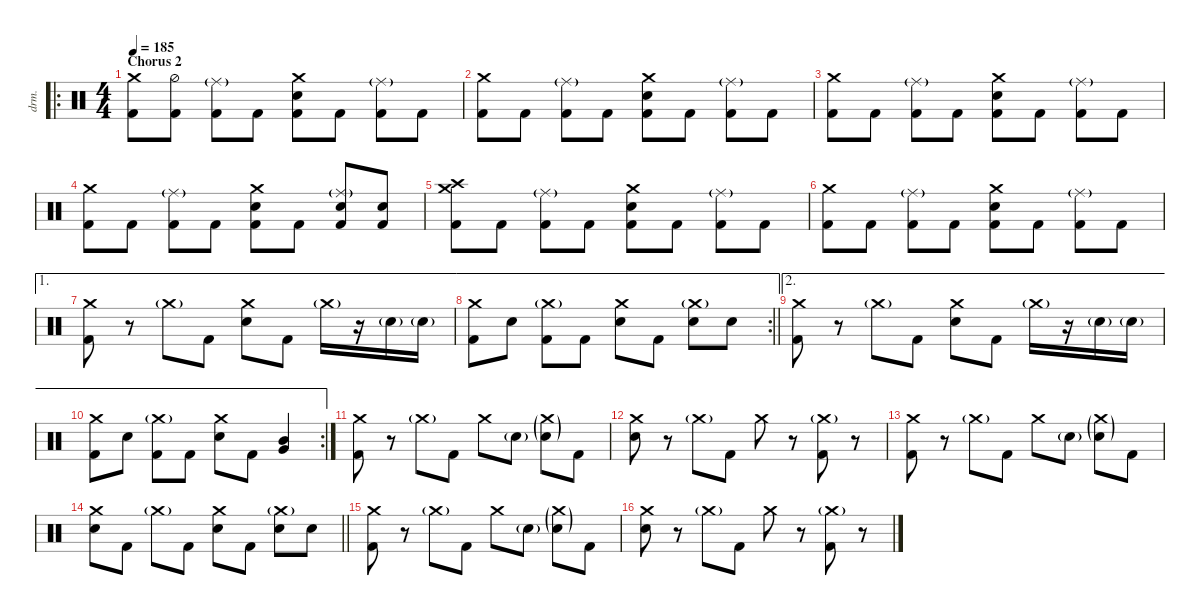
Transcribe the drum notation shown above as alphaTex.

\defaultSystemsLayout 4
\hideDynamics
\bracketExtendMode nobrackets
\track ("Drums - Šimon" "drm.") {instrument percussion}
\staff {score}
\articulation defaults
\ro
\ts (4 4)
\section ("" "Chorus 2")
\tempo 185
\clef neutral
\ks c
("Crash medium (hit)" "Kick (hit) 2").8{dy ff beam Down} ("Kick (hit) 2" "Hi-Hat (half)").8{beam Down} ("Kick (hit) 2" "Ride (middle)"{g}).8{beam Down} "Kick (hit) 2".8{beam Down} ("Snare (hit) 2" "Crash medium (hit)" "Kick (hit) 2").8{beam Down} "Kick (hit) 2".8{beam Down} ("Kick (hit) 2" "Ride (middle)"{g}).8{beam Down} "Kick (hit) 2".8{beam Down} |
("Crash medium (hit)" "Kick (hit) 2").8{beam Down} "Kick (hit) 2".8{beam Down} ("Kick (hit) 2" "Ride (middle)"{g}).8{beam Down} "Kick (hit) 2".8{beam Down} ("Snare (hit) 2" "Crash medium (hit)" "Kick (hit) 2").8{beam Down} "Kick (hit) 2".8{beam Down} ("Kick (hit) 2" "Ride (middle)"{g}).8{beam Down} "Kick (hit) 2".8{beam Down} |
("Crash medium (hit)" "Kick (hit) 2").8{beam Down} "Kick (hit) 2".8{beam Down} ("Kick (hit) 2" "Ride (middle)"{g}).8{beam Down} "Kick (hit) 2".8{beam Down} ("Snare (hit) 2" "Crash medium (hit)" "Kick (hit) 2").8{beam Down} "Kick (hit) 2".8{beam Down} ("Kick (hit) 2" "Ride (middle)"{g}).8{beam Down} "Kick (hit) 2".8{beam Down} |
("Crash medium (hit)" "Kick (hit) 2").8{beam Down} "Kick (hit) 2".8{beam Down} ("Kick (hit) 2" "Ride (middle)"{g}).8{beam Down} "Kick (hit) 2".8{beam Down} ("Snare (hit) 2" "Crash medium (hit)" "Kick (hit) 2").8{beam Down} "Kick (hit) 2".8{beam Down} ("Kick (hit) 2" "Ride (middle)"{g} "Snare (hit) 2").8{beam Up} ("Kick (hit) 2" "Snare (hit) 2").8{beam Up} |
("Crash medium (hit)" "Kick (hit) 2" "Crash high (hit)").8{beam Down} "Kick (hit) 2".8{beam Down} ("Kick (hit) 2" "Ride (middle)"{g}).8{beam Down} "Kick (hit) 2".8{beam Down} ("Snare (hit) 2" "Crash medium (hit)" "Kick (hit) 2").8{beam Down} "Kick (hit) 2".8{beam Down} ("Kick (hit) 2" "Ride (middle)"{g}).8{beam Down} "Kick (hit) 2".8{beam Down} |
("Crash medium (hit)" "Kick (hit) 2").8{beam Down} "Kick (hit) 2".8{beam Down} ("Kick (hit) 2" "Ride (middle)"{g}).8{beam Down} "Kick (hit) 2".8{beam Down} ("Snare (hit) 2" "Crash medium (hit)" "Kick (hit) 2").8{beam Down} "Kick (hit) 2".8{beam Down} ("Kick (hit) 2" "Ride (middle)"{g}).8{beam Down} "Kick (hit) 2".8{beam Down} |
\ae 1
("Kick (hit) 2" "Crash medium (hit)").8{beam Down} r.8{beam Down} "Crash medium (hit)"{g}.8{beam Down} "Kick (hit) 2".8{beam Down} ("Snare (hit) 2" "Crash medium (hit)").8{beam Down} "Kick (hit) 2".8{beam Down} "Crash medium (hit)"{g}.16{beam Down} r.16{beam Down} "Snare (hit) 2"{g}.16{beam Down} "Snare (hit) 2"{g}.16{beam Down} |
\ae 1
\rc 2
\barLineRight lightlight
("Crash medium (hit)" "Kick (hit) 2").8{beam Down} "Snare (hit) 2".8{beam Down} ("Kick (hit) 2" "Crash medium (hit)"{g}).8{beam Down} "Kick (hit) 2".8{beam Down} ("Snare (hit) 2" "Crash medium (hit)").8{beam Down} "Kick (hit) 2".8{beam Down} ("Crash medium (hit)"{g} "Snare (hit) 2").8{beam Down} "Snare (hit) 2".8{beam Down} |
\ae 2
("Kick (hit) 2" "Crash medium (hit)").8{beam Down} r.8{beam Down} "Crash medium (hit)"{g}.8{beam Down} "Kick (hit) 2".8{beam Down} ("Snare (hit) 2" "Crash medium (hit)").8{beam Down} "Kick (hit) 2".8{beam Down} "Crash medium (hit)"{g}.16{beam Down} r.16{beam Down} "Snare (hit) 2"{g}.16{beam Down} "Snare (hit) 2"{g}.16{beam Down} |
\ae 2
\rc 2
("Crash medium (hit)" "Kick (hit) 2").8{beam Down} "Snare (hit) 2".8{beam Down} ("Kick (hit) 2" "Crash medium (hit)"{g}).8{beam Down} "Kick (hit) 2".8{beam Down} ("Snare (hit) 2" "Crash medium (hit)").8{beam Down} "Kick (hit) 2".8{beam Down} ("Very Low Tom (hit)" "Mid Tom (hit)").4{beam Up} |
("Crash medium (hit)" "Kick (hit) 2").8{beam Down} r.8{beam Down} "Crash medium (hit)"{g}.8{dy f beam Down} "Kick (hit) 2".8{dy ff beam Down} "Crash medium (hit)".8{beam Down} "Snare (hit) 2"{g}.8{beam Down} ("Snare (hit) 2"{g} "Crash medium (hit)"{g}).8{beam Down} "Kick (hit) 2".8{beam Down} |
("Crash medium (hit)" "Snare (hit) 2").8{beam Down} r.8{beam Down} "Crash medium (hit)"{g}.8{dy f beam Down} "Kick (hit) 2".8{dy ff beam Down} "Crash medium (hit)".8{beam Down} r.8{beam Down} ("Kick (hit) 2" "Crash medium (hit)"{g}).8{beam Down} r.8{beam Down} |
("Crash medium (hit)" "Kick (hit) 2").8{beam Down} r.8{beam Down} "Crash medium (hit)"{g}.8{dy f beam Down} "Kick (hit) 2".8{dy ff beam Down} "Crash medium (hit)".8{beam Down} "Snare (hit) 2"{g}.8{beam Down} ("Snare (hit) 2"{g} "Crash medium (hit)"{g}).8{beam Down} "Kick (hit) 2".8{beam Down} |
\barLineRight lightlight
("Crash medium (hit)" "Snare (hit) 2").8{beam Down} "Kick (hit) 2".8{beam Down} "Crash medium (hit)"{g}.8{dy f beam Down} "Kick (hit) 2".8{dy ff beam Down} ("Crash medium (hit)" "Snare (hit) 2").8{beam Down} "Kick (hit) 2".8{beam Down} ("Snare (hit) 2" "Crash medium (hit)"{g}).8{beam Down} "Snare (hit) 2".8{beam Down} |
("Crash medium (hit)" "Kick (hit) 2").8{beam Down} r.8{beam Down} "Crash medium (hit)"{g}.8{dy f beam Down} "Kick (hit) 2".8{dy ff beam Down} "Crash medium (hit)".8{beam Down} "Snare (hit) 2"{g}.8{beam Down} ("Snare (hit) 2"{g} "Crash medium (hit)"{g}).8{beam Down} "Kick (hit) 2".8{beam Down} |
("Crash medium (hit)" "Snare (hit) 2").8{beam Down} r.8{beam Down} "Crash medium (hit)"{g}.8{dy f beam Down} "Kick (hit) 2".8{dy ff beam Down} "Crash medium (hit)".8{beam Down} r.8{beam Down} ("Kick (hit) 2" "Crash medium (hit)"{g}).8{beam Down} r.8{beam Down}
